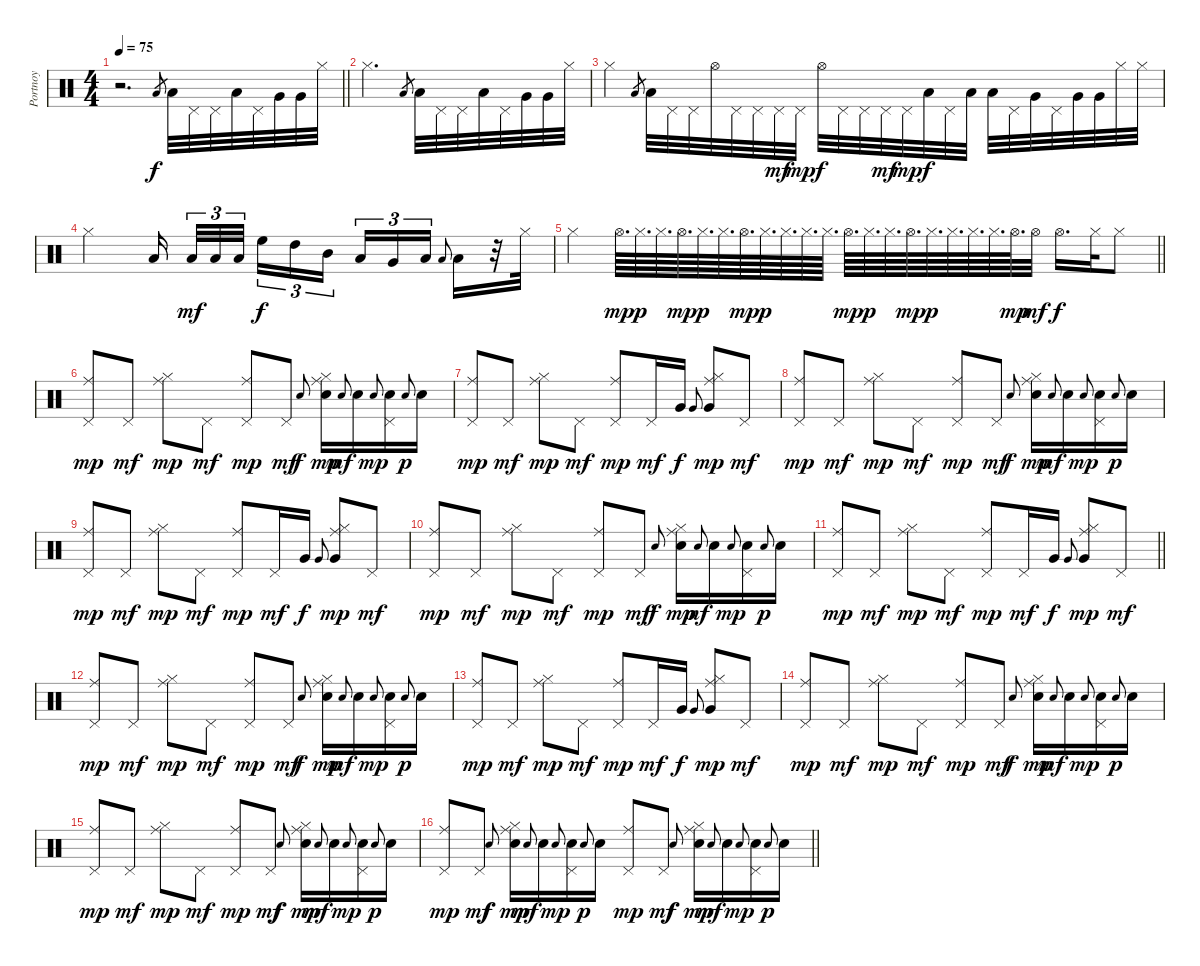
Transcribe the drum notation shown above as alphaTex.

\track ("Portnoy" "Portnoy") {instrument percussion}
\staff {score}
\articulation defaults
\ts (4 4)
\tempo 75
\clef neutral
\barLineRight lightlight
\ks c
r.2{d dy f} "Low Tom (hit)".8{gr} "Low Tom (hit)".32 "Pedal Hi-Hat (hit)".32 "Pedal Hi-Hat (hit)".32 "Low Tom (hit)".32 "Pedal Hi-Hat (hit)".32 "Very Low Tom (hit)".32 "Very Low Tom (hit)".32 "Hi-Hat (closed)".32 |
"Hi-Hat (closed)".2{d} "Low Tom (hit)".8{gr} "Low Tom (hit)".32 "Pedal Hi-Hat (hit)".32 "Pedal Hi-Hat (hit)".32 "Low Tom (hit)".32 "Pedal Hi-Hat (hit)".32 "Very Low Tom (hit)".32 "Very Low Tom (hit)".32 "Hi-Hat (closed)".32 |
"Hi-Hat (closed)".4 "Low Tom (hit)".8{gr} "Low Tom (hit)".32 "Pedal Hi-Hat (hit)".32 "Pedal Hi-Hat (hit)".32 "Hi-Hat (open)".32 "Pedal Hi-Hat (hit)".32 "Pedal Hi-Hat (hit)".32 "Pedal Hi-Hat (hit)".32{dy mf} "Pedal Hi-Hat (hit)".32{dy mp} "Hi-Hat (open)".32{dy f} "Pedal Hi-Hat (hit)".32 "Pedal Hi-Hat (hit)".32 "Pedal Hi-Hat (hit)".32{dy mf} "Pedal Hi-Hat (hit)".32{dy mp} "Low Tom (hit)".32{dy f} "Pedal Hi-Hat (hit)".32 "Low Tom (hit)".32 "Low Tom (hit)".32 "Pedal Hi-Hat (hit)".32 "Very Low Tom (hit)".32 "Pedal Hi-Hat (hit)".32 "Very Low Tom (hit)".32 "Very Low Tom (hit)".32 "Hi-Hat (closed)".32 "Hi-Hat (closed)".32 |
"Hi-Hat (closed)".2 "Low Tom (hit)".16{beam splitsecondary} "Low Tom (hit)".32{tu (3 2) dy mf} "Low Tom (hit)".32{tu (3 2)} "Low Tom (hit)".32{tu (3 2) beam splitsecondary} "High Floor Tom (hit)".16{tu (3 2) dy f} "High Tom (hit)".16{tu (3 2)} "Mid Tom (hit)".16{tu (3 2)} "Low Tom (hit)".16{tu (3 2)} "Very Low Tom (hit)".16{tu (3 2)} "Low Floor Tom (hit)".16{tu (3 2)} "Low Floor Tom (hit)".8{gr onbeat beam splitsecondary} "Low Floor Tom (hit)".16 r.32 "Hi-Hat (closed)".32 |
\barLineRight lightlight "Hi-Hat (closed)".4 "Hi-Hat (open)".64{d dy mp} "Hi-Hat (closed)".64{d dy p} "Hi-Hat (closed)".64{d} "Hi-Hat (open)".64{d dy mp} "Hi-Hat (closed)".64{d dy p} "Hi-Hat (closed)".64{d} "Hi-Hat (open)".64{d dy mp} "Hi-Hat (closed)".64{d dy p} "Hi-Hat (closed)".64{d} "Hi-Hat (closed)".64{d} "Hi-Hat (closed)".64{d} "Hi-Hat (open)".64{d dy mp} "Hi-Hat (closed)".64{d dy p} "Hi-Hat (closed)".64{d} "Hi-Hat (open)".64{d dy mp} "Hi-Hat (closed)".64{d dy p} "Hi-Hat (closed)".64{d} "Hi-Hat (closed)".64{d} "Hi-Hat (closed)".64{d} "Hi-Hat (open)".64{d dy mp} "Hi-Hat (open)".32{dy mf} "Hi-Hat (open)".16{d dy f} "Hi-Hat (closed)".32 "Hi-Hat (closed)".8
|
("Pedal Hi-Hat (hit)" "Ride (middle)").8{dy mp volume 16} "Pedal Hi-Hat (hit)".8{dy mf} ("Hi-Hat (closed)" "Ride (middle)").8{dy mp} "Pedal Hi-Hat (hit)".8{dy mf} ("Pedal Hi-Hat (hit)" "Ride (middle)").8{dy mp} "Pedal Hi-Hat (hit)".8{dy mf} "Electric Snare (hit)".8{gr onbeat dy f} ("Hi-Hat (closed)" "Ride (middle)" "Electric Snare (hit)").16{dy mp} "Electric Snare (hit)".8{gr onbeat dy mf} "Electric Snare (hit)".16 "Electric Snare (hit)".8{gr onbeat dy mp} ("Pedal Hi-Hat (hit)" "Electric Snare (hit)").16 "Electric Snare (hit)".8{gr onbeat dy p} "Electric Snare (hit)".16 |
("Pedal Hi-Hat (hit)" "Ride (middle)").8{dy mp} "Pedal Hi-Hat (hit)".8{dy mf} ("Hi-Hat (closed)" "Ride (middle)").8{dy mp} "Pedal Hi-Hat (hit)".8{dy mf} ("Pedal Hi-Hat (hit)" "Ride (middle)").8{dy mp} "Pedal Hi-Hat (hit)".16{dy mf} "Very Low Tom (hit)".16{dy f} "Very Low Tom (hit)".8{gr onbeat} ("Hi-Hat (closed)" "Ride (middle)" "Very Low Tom (hit)").8{dy mp} "Pedal Hi-Hat (hit)".8{dy mf} |
("Pedal Hi-Hat (hit)" "Ride (middle)").8{dy mp} "Pedal Hi-Hat (hit)".8{dy mf} ("Hi-Hat (closed)" "Ride (middle)").8{dy mp} "Pedal Hi-Hat (hit)".8{dy mf} ("Pedal Hi-Hat (hit)" "Ride (middle)").8{dy mp} "Pedal Hi-Hat (hit)".8{dy mf} "Electric Snare (hit)".8{gr onbeat dy f} ("Hi-Hat (closed)" "Ride (middle)" "Electric Snare (hit)").16{dy mp} "Electric Snare (hit)".8{gr onbeat dy mf} "Electric Snare (hit)".16 "Electric Snare (hit)".8{gr onbeat dy mp} ("Pedal Hi-Hat (hit)" "Electric Snare (hit)").16 "Electric Snare (hit)".8{gr onbeat dy p} "Electric Snare (hit)".16 |
("Pedal Hi-Hat (hit)" "Ride (middle)").8{dy mp} "Pedal Hi-Hat (hit)".8{dy mf} ("Hi-Hat (closed)" "Ride (middle)").8{dy mp} "Pedal Hi-Hat (hit)".8{dy mf} ("Pedal Hi-Hat (hit)" "Ride (middle)").8{dy mp} "Pedal Hi-Hat (hit)".16{dy mf} "Very Low Tom (hit)".16{dy f} "Very Low Tom (hit)".8{gr onbeat} ("Hi-Hat (closed)" "Ride (middle)" "Very Low Tom (hit)").8{dy mp} "Pedal Hi-Hat (hit)".8{dy mf} |
("Pedal Hi-Hat (hit)" "Ride (middle)").8{dy mp} "Pedal Hi-Hat (hit)".8{dy mf} ("Hi-Hat (closed)" "Ride (middle)").8{dy mp} "Pedal Hi-Hat (hit)".8{dy mf} ("Pedal Hi-Hat (hit)" "Ride (middle)").8{dy mp} "Pedal Hi-Hat (hit)".8{dy mf} "Electric Snare (hit)".8{gr onbeat dy f} ("Hi-Hat (closed)" "Ride (middle)" "Electric Snare (hit)").16{dy mp} "Electric Snare (hit)".8{gr onbeat dy mf} "Electric Snare (hit)".16 "Electric Snare (hit)".8{gr onbeat dy mp} ("Pedal Hi-Hat (hit)" "Electric Snare (hit)").16 "Electric Snare (hit)".8{gr onbeat dy p} "Electric Snare (hit)".16 |
\barLineRight lightlight
("Pedal Hi-Hat (hit)" "Ride (middle)").8{dy mp} "Pedal Hi-Hat (hit)".8{dy mf} ("Hi-Hat (closed)" "Ride (middle)").8{dy mp} "Pedal Hi-Hat (hit)".8{dy mf} ("Pedal Hi-Hat (hit)" "Ride (middle)").8{dy mp} "Pedal Hi-Hat (hit)".16{dy mf} "Very Low Tom (hit)".16{dy f} "Very Low Tom (hit)".8{gr onbeat} ("Hi-Hat (closed)" "Ride (middle)" "Very Low Tom (hit)").8{dy mp} "Pedal Hi-Hat (hit)".8{dy mf} |
("Pedal Hi-Hat (hit)" "Ride (middle)").8{dy mp} "Pedal Hi-Hat (hit)".8{dy mf} ("Hi-Hat (closed)" "Ride (middle)").8{dy mp} "Pedal Hi-Hat (hit)".8{dy mf} ("Pedal Hi-Hat (hit)" "Ride (middle)").8{dy mp} "Pedal Hi-Hat (hit)".8{dy mf} "Electric Snare (hit)".8{gr onbeat dy f} ("Hi-Hat (closed)" "Ride (middle)" "Electric Snare (hit)").16{dy mp} "Electric Snare (hit)".8{gr onbeat dy mf} "Electric Snare (hit)".16 "Electric Snare (hit)".8{gr onbeat dy mp} ("Pedal Hi-Hat (hit)" "Electric Snare (hit)").16 "Electric Snare (hit)".8{gr onbeat dy p} "Electric Snare (hit)".16 |
("Pedal Hi-Hat (hit)" "Ride (middle)").8{dy mp} "Pedal Hi-Hat (hit)".8{dy mf} ("Hi-Hat (closed)" "Ride (middle)").8{dy mp} "Pedal Hi-Hat (hit)".8{dy mf} ("Pedal Hi-Hat (hit)" "Ride (middle)").8{dy mp} "Pedal Hi-Hat (hit)".16{dy mf} "Very Low Tom (hit)".16{dy f} "Very Low Tom (hit)".8{gr onbeat} ("Hi-Hat (closed)" "Ride (middle)" "Very Low Tom (hit)").8{dy mp} "Pedal Hi-Hat (hit)".8{dy mf} |
("Pedal Hi-Hat (hit)" "Ride (middle)").8{dy mp} "Pedal Hi-Hat (hit)".8{dy mf} ("Hi-Hat (closed)" "Ride (middle)").8{dy mp} "Pedal Hi-Hat (hit)".8{dy mf} ("Pedal Hi-Hat (hit)" "Ride (middle)").8{dy mp} "Pedal Hi-Hat (hit)".8{dy mf} "Electric Snare (hit)".8{gr onbeat dy f} ("Hi-Hat (closed)" "Ride (middle)" "Electric Snare (hit)").16{dy mp} "Electric Snare (hit)".8{gr onbeat dy mf} "Electric Snare (hit)".16 "Electric Snare (hit)".8{gr onbeat dy mp} ("Pedal Hi-Hat (hit)" "Electric Snare (hit)").16 "Electric Snare (hit)".8{gr onbeat dy p} "Electric Snare (hit)".16 |
("Pedal Hi-Hat (hit)" "Ride (middle)").8{dy mp} "Pedal Hi-Hat (hit)".8{dy mf} ("Hi-Hat (closed)" "Ride (middle)").8{dy mp} "Pedal Hi-Hat (hit)".8{dy mf} ("Pedal Hi-Hat (hit)" "Ride (middle)").8{dy mp} "Pedal Hi-Hat (hit)".8{dy mf} "Electric Snare (hit)".8{gr onbeat dy f} ("Hi-Hat (closed)" "Ride (middle)" "Electric Snare (hit)").16{dy mp} "Electric Snare (hit)".8{gr onbeat dy mf} "Electric Snare (hit)".16 "Electric Snare (hit)".8{gr onbeat dy mp} ("Pedal Hi-Hat (hit)" "Electric Snare (hit)").16 "Electric Snare (hit)".8{gr onbeat dy p} "Electric Snare (hit)".16 |
\barLineRight lightlight
("Pedal Hi-Hat (hit)" "Ride (middle)").8{dy mp} "Pedal Hi-Hat (hit)".8{dy mf} "Electric Snare (hit)".8{gr onbeat dy f} ("Hi-Hat (closed)" "Ride (middle)" "Electric Snare (hit)").16{dy mp} "Electric Snare (hit)".8{gr onbeat dy mf} "Electric Snare (hit)".16 "Electric Snare (hit)".8{gr onbeat dy mp} ("Pedal Hi-Hat (hit)" "Electric Snare (hit)").16 "Electric Snare (hit)".8{gr onbeat dy p} "Electric Snare (hit)".16 ("Pedal Hi-Hat (hit)" "Ride (middle)").8{dy mp} "Pedal Hi-Hat (hit)".8{dy mf} "Electric Snare (hit)".8{gr onbeat dy f} ("Hi-Hat (closed)" "Ride (middle)" "Electric Snare (hit)").16{dy mp} "Electric Snare (hit)".8{gr onbeat dy mf} "Electric Snare (hit)".16 "Electric Snare (hit)".8{gr onbeat dy mp} ("Pedal Hi-Hat (hit)" "Electric Snare (hit)").16 "Electric Snare (hit)".8{gr onbeat dy p} "Electric Snare (hit)".16
